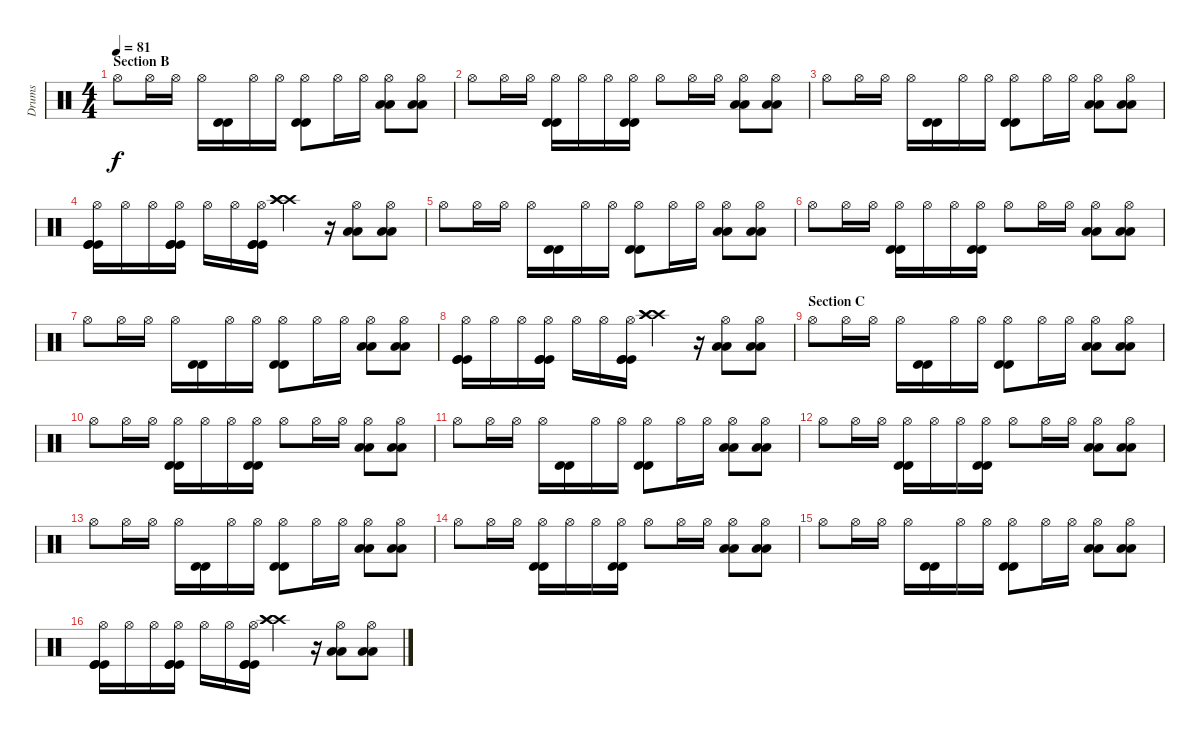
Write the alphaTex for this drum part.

\track ("Drums" "Drums") {instrument percussion}
\staff {score}
\articulation defaults
\ts (4 4)
\section ("" "Section B")
\tempo 81
\clef neutral
\ks c "Hi-Hat (open)".8{dy f} "Hi-Hat (open)".16 "Hi-Hat (open)".16 "Hi-Hat (open)".16
("Timbale high (hit)" "Timbale high (hit)").16 "Hi-Hat (open)".16 "Hi-Hat (open)".16 ("Hi-Hat (open)" "Timbale high (hit)" "Timbale high (hit)").8 "Hi-Hat (open)".16 "Hi-Hat (open)".16 ("Hi-Hat (open)" "Low Tom (hit)" "Low Tom (hit)").8 ("Hi-Hat (open)" "Low Tom (hit)" "Low Tom (hit)").8 |
"Hi-Hat (open)".8 "Hi-Hat (open)".16 "Hi-Hat (open)".16 ("Hi-Hat (open)" "Timbale high (hit)" "Timbale high (hit)").16 "Hi-Hat (open)".16 "Hi-Hat (open)".16 ("Hi-Hat (open)" "Timbale high (hit)" "Timbale high (hit)").16 "Hi-Hat (open)".8 "Hi-Hat (open)".16 "Hi-Hat (open)".16 ("Hi-Hat (open)" "Low Tom (hit)" "Low Tom (hit)").8 ("Hi-Hat (open)" "Low Tom (hit)" "Low Tom (hit)").8 |
"Hi-Hat (open)".8 "Hi-Hat (open)".16 "Hi-Hat (open)".16 "Hi-Hat (open)".16 ("Timbale high (hit)" "Timbale high (hit)").16 "Hi-Hat (open)".16 "Hi-Hat (open)".16 ("Hi-Hat (open)" "Timbale high (hit)" "Timbale high (hit)").8 "Hi-Hat (open)".16 "Hi-Hat (open)".16 ("Hi-Hat (open)" "Low Tom (hit)" "Low Tom (hit)").8 ("Hi-Hat (open)" "Low Tom (hit)" "Low Tom (hit)").8 |
("Hi-Hat (open)" "Kick (hit)" "Kick (hit)" "Kick (hit)").16 "Hi-Hat (open)".16 "Hi-Hat (open)".16 ("Hi-Hat (open)" "Kick (hit)" "Kick (hit)" "Kick (hit)").16 "Hi-Hat (open)".16 "Hi-Hat (open)".16 ("Hi-Hat (open)" "Kick (hit)" "Kick (hit)" "Kick (hit)").16 ("Crash high (hit)" "Crash high (hit)" "Crash high (hit)").4 r.16 ("Hi-Hat (open)" "Low Tom (hit)" "Low Tom (hit)").8 ("Hi-Hat (open)" "Low Tom (hit)" "Low Tom (hit)").8 |
"Hi-Hat (open)".8 "Hi-Hat (open)".16 "Hi-Hat (open)".16 "Hi-Hat (open)".16 ("Timbale high (hit)" "Timbale high (hit)").16 "Hi-Hat (open)".16 "Hi-Hat (open)".16 ("Hi-Hat (open)" "Timbale high (hit)" "Timbale high (hit)").8 "Hi-Hat (open)".16 "Hi-Hat (open)".16 ("Hi-Hat (open)" "Low Tom (hit)" "Low Tom (hit)").8 ("Hi-Hat (open)" "Low Tom (hit)" "Low Tom (hit)").8 |
"Hi-Hat (open)".8 "Hi-Hat (open)".16 "Hi-Hat (open)".16 ("Hi-Hat (open)" "Timbale high (hit)" "Timbale high (hit)").16 "Hi-Hat (open)".16 "Hi-Hat (open)".16 ("Hi-Hat (open)" "Timbale high (hit)" "Timbale high (hit)").16 "Hi-Hat (open)".8 "Hi-Hat (open)".16 "Hi-Hat (open)".16 ("Hi-Hat (open)" "Low Tom (hit)" "Low Tom (hit)").8 ("Hi-Hat (open)" "Low Tom (hit)" "Low Tom (hit)").8 |
"Hi-Hat (open)".8 "Hi-Hat (open)".16 "Hi-Hat (open)".16 "Hi-Hat (open)".16 ("Timbale high (hit)" "Timbale high (hit)").16 "Hi-Hat (open)".16 "Hi-Hat (open)".16 ("Hi-Hat (open)" "Timbale high (hit)" "Timbale high (hit)").8 "Hi-Hat (open)".16 "Hi-Hat (open)".16 ("Hi-Hat (open)" "Low Tom (hit)" "Low Tom (hit)").8 ("Hi-Hat (open)" "Low Tom (hit)" "Low Tom (hit)").8 |
("Hi-Hat (open)" "Kick (hit)" "Kick (hit)" "Kick (hit)").16 "Hi-Hat (open)".16 "Hi-Hat (open)".16 ("Hi-Hat (open)" "Kick (hit)" "Kick (hit)" "Kick (hit)").16 "Hi-Hat (open)".16 "Hi-Hat (open)".16 ("Hi-Hat (open)" "Kick (hit)" "Kick (hit)" "Kick (hit)").16 ("Crash high (hit)" "Crash high (hit)" "Crash high (hit)").4 r.16 ("Hi-Hat (open)" "Low Tom (hit)" "Low Tom (hit)").8 ("Hi-Hat (open)" "Low Tom (hit)" "Low Tom (hit)").8 |
\section ("" "Section C")
"Hi-Hat (open)".8 "Hi-Hat (open)".16 "Hi-Hat (open)".16 "Hi-Hat (open)".16 ("Timbale high (hit)" "Timbale high (hit)").16 "Hi-Hat (open)".16 "Hi-Hat (open)".16 ("Hi-Hat (open)" "Timbale high (hit)" "Timbale high (hit)").8 "Hi-Hat (open)".16 "Hi-Hat (open)".16 ("Hi-Hat (open)" "Low Tom (hit)" "Low Tom (hit)").8 ("Hi-Hat (open)" "Low Tom (hit)" "Low Tom (hit)").8 |
"Hi-Hat (open)".8 "Hi-Hat (open)".16 "Hi-Hat (open)".16 ("Hi-Hat (open)" "Timbale high (hit)" "Timbale high (hit)").16 "Hi-Hat (open)".16 "Hi-Hat (open)".16 ("Hi-Hat (open)" "Timbale high (hit)" "Timbale high (hit)").16 "Hi-Hat (open)".8 "Hi-Hat (open)".16 "Hi-Hat (open)".16 ("Hi-Hat (open)" "Low Tom (hit)" "Low Tom (hit)").8 ("Hi-Hat (open)" "Low Tom (hit)" "Low Tom (hit)").8 |
"Hi-Hat (open)".8 "Hi-Hat (open)".16 "Hi-Hat (open)".16 "Hi-Hat (open)".16 ("Timbale high (hit)" "Timbale high (hit)").16 "Hi-Hat (open)".16 "Hi-Hat (open)".16 ("Hi-Hat (open)" "Timbale high (hit)" "Timbale high (hit)").8 "Hi-Hat (open)".16 "Hi-Hat (open)".16 ("Hi-Hat (open)" "Low Tom (hit)" "Low Tom (hit)").8 ("Hi-Hat (open)" "Low Tom (hit)" "Low Tom (hit)").8 |
"Hi-Hat (open)".8 "Hi-Hat (open)".16 "Hi-Hat (open)".16 ("Hi-Hat (open)" "Timbale high (hit)" "Timbale high (hit)").16 "Hi-Hat (open)".16 "Hi-Hat (open)".16 ("Hi-Hat (open)" "Timbale high (hit)" "Timbale high (hit)").16 "Hi-Hat (open)".8 "Hi-Hat (open)".16 "Hi-Hat (open)".16 ("Hi-Hat (open)" "Low Tom (hit)" "Low Tom (hit)").8 ("Hi-Hat (open)" "Low Tom (hit)" "Low Tom (hit)").8 |
"Hi-Hat (open)".8 "Hi-Hat (open)".16 "Hi-Hat (open)".16 "Hi-Hat (open)".16 ("Timbale high (hit)" "Timbale high (hit)").16 "Hi-Hat (open)".16 "Hi-Hat (open)".16 ("Hi-Hat (open)" "Timbale high (hit)" "Timbale high (hit)").8 "Hi-Hat (open)".16 "Hi-Hat (open)".16 ("Hi-Hat (open)" "Low Tom (hit)" "Low Tom (hit)").8 ("Hi-Hat (open)" "Low Tom (hit)" "Low Tom (hit)").8 |
"Hi-Hat (open)".8 "Hi-Hat (open)".16 "Hi-Hat (open)".16 ("Hi-Hat (open)" "Timbale high (hit)" "Timbale high (hit)").16 "Hi-Hat (open)".16 "Hi-Hat (open)".16 ("Hi-Hat (open)" "Timbale high (hit)" "Timbale high (hit)").16 "Hi-Hat (open)".8 "Hi-Hat (open)".16 "Hi-Hat (open)".16 ("Hi-Hat (open)" "Low Tom (hit)" "Low Tom (hit)").8 ("Hi-Hat (open)" "Low Tom (hit)" "Low Tom (hit)").8 |
"Hi-Hat (open)".8 "Hi-Hat (open)".16 "Hi-Hat (open)".16 "Hi-Hat (open)".16 ("Timbale high (hit)" "Timbale high (hit)").16 "Hi-Hat (open)".16 "Hi-Hat (open)".16 ("Hi-Hat (open)" "Timbale high (hit)" "Timbale high (hit)").8 "Hi-Hat (open)".16 "Hi-Hat (open)".16 ("Hi-Hat (open)" "Low Tom (hit)" "Low Tom (hit)").8 ("Hi-Hat (open)" "Low Tom (hit)" "Low Tom (hit)").8 |
("Hi-Hat (open)" "Kick (hit)" "Kick (hit)" "Kick (hit)").16 "Hi-Hat (open)".16 "Hi-Hat (open)".16 ("Hi-Hat (open)" "Kick (hit)" "Kick (hit)" "Kick (hit)").16 "Hi-Hat (open)".16 "Hi-Hat (open)".16 ("Hi-Hat (open)" "Kick (hit)" "Kick (hit)" "Kick (hit)").16 ("Crash high (hit)" "Crash high (hit)" "Crash high (hit)").4 r.16 ("Hi-Hat (open)" "Low Tom (hit)" "Low Tom (hit)").8 ("Hi-Hat (open)" "Low Tom (hit)" "Low Tom (hit)").8
